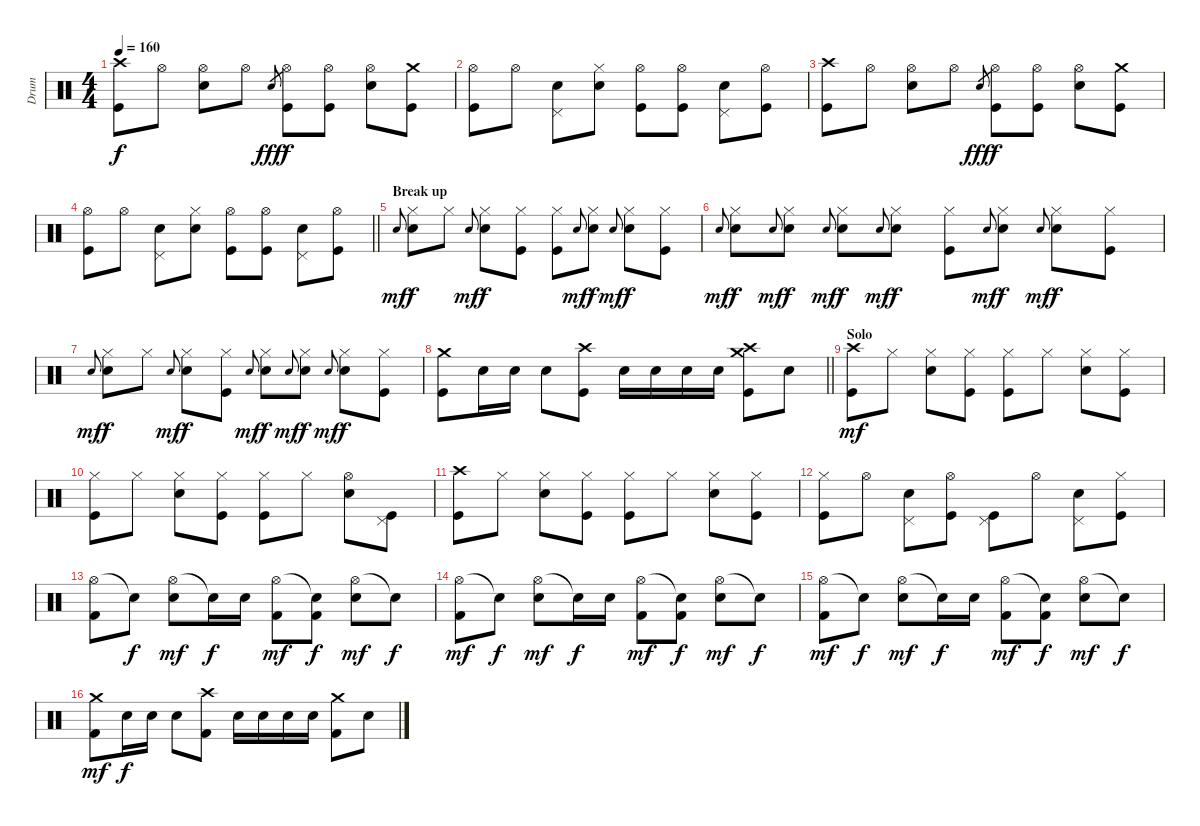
\track ("Drum" "Drum") {instrument percussion}
\staff {score}
\articulation defaults
\ts (4 4)
\tempo 160
\clef neutral
\ks c
("Crash high (hit)" "Kick (hit)").8{dy f} "Hi-Hat (open)".8 ("Hi-Hat (open)" "Electric Snare (hit)").8 "Hi-Hat (open)".8 "Electric Snare (hit)".8{gr dy fff} ("Hi-Hat (open)" "Kick (hit)").8{dy f} ("Hi-Hat (open)" "Kick (hit)").8 ("Hi-Hat (open)" "Electric Snare (hit)").8 ("Crash medium (hit)" "Kick (hit)").8 |
("Hi-Hat (open)" "Kick (hit)").8 "Hi-Hat (open)".8 ("Pedal Hi-Hat (hit)" "Electric Snare (hit)").8 ("Hi-Hat (closed)" "Electric Snare (hit)").8 ("Hi-Hat (open)" "Kick (hit)").8 ("Hi-Hat (open)" "Kick (hit)").8 ("Pedal Hi-Hat (hit)" "Electric Snare (hit)").8 ("Hi-Hat (open)" "Kick (hit)").8 |
("Crash high (hit)" "Kick (hit)").8 "Hi-Hat (open)".8 ("Hi-Hat (open)" "Electric Snare (hit)").8 "Hi-Hat (open)".8 "Electric Snare (hit)".8{gr dy fff} ("Hi-Hat (open)" "Kick (hit)").8{dy f} ("Hi-Hat (open)" "Kick (hit)").8 ("Hi-Hat (open)" "Electric Snare (hit)").8 ("Crash medium (hit)" "Kick (hit)").8 |
\barLineRight lightlight
("Hi-Hat (open)" "Kick (hit)").8 "Hi-Hat (open)".8 ("Pedal Hi-Hat (hit)" "Electric Snare (hit)").8 ("Hi-Hat (closed)" "Electric Snare (hit)").8 ("Hi-Hat (open)" "Kick (hit)").8 ("Hi-Hat (open)" "Kick (hit)").8 ("Pedal Hi-Hat (hit)" "Electric Snare (hit)").8 ("Hi-Hat (open)" "Kick (hit)").8 |
\section ("" "Break up")
"Electric Snare (hit)".8{gr onbeat dy mf} ("Hi-Hat (closed)" "Electric Snare (hit)").8{dy f} "Hi-Hat (closed)".8 "Electric Snare (hit)".8{gr onbeat dy mf} ("Hi-Hat (closed)" "Electric Snare (hit)").8{dy f} ("Hi-Hat (closed)" "Kick (hit)").8 ("Hi-Hat (closed)" "Kick (hit)").8 "Electric Snare (hit)".8{gr onbeat dy mf} ("Hi-Hat (closed)" "Electric Snare (hit)").8{dy f} "Electric Snare (hit)".8{gr onbeat dy mf} ("Hi-Hat (closed)" "Electric Snare (hit)").8{dy f} ("Hi-Hat (closed)" "Kick (hit)").8 |
"Electric Snare (hit)".8{gr onbeat dy mf} ("Hi-Hat (closed)" "Electric Snare (hit)").8{dy f} "Electric Snare (hit)".8{gr onbeat dy mf} ("Hi-Hat (closed)" "Electric Snare (hit)").8{dy f} "Electric Snare (hit)".8{gr onbeat dy mf} ("Hi-Hat (closed)" "Electric Snare (hit)").8{dy f} "Electric Snare (hit)".8{gr onbeat dy mf} ("Hi-Hat (closed)" "Electric Snare (hit)").8{dy f} ("Hi-Hat (closed)" "Kick (hit)").8 "Electric Snare (hit)".8{gr onbeat dy mf} ("Hi-Hat (closed)" "Electric Snare (hit)").8{dy f} "Electric Snare (hit)".8{gr onbeat dy mf} ("Hi-Hat (closed)" "Electric Snare (hit)").8{dy f} ("Hi-Hat (closed)" "Kick (hit)").8 |
"Electric Snare (hit)".8{gr onbeat dy mf} ("Hi-Hat (closed)" "Electric Snare (hit)").8{dy f} "Hi-Hat (closed)".8 "Electric Snare (hit)".8{gr onbeat dy mf} ("Hi-Hat (closed)" "Electric Snare (hit)").8{dy f} ("Hi-Hat (closed)" "Kick (hit)").8 "Electric Snare (hit)".8{gr onbeat dy mf} ("Hi-Hat (closed)" "Electric Snare (hit)").8{dy f} "Electric Snare (hit)".8{gr onbeat dy mf} ("Hi-Hat (closed)" "Electric Snare (hit)").8{dy f} "Electric Snare (hit)".8{gr onbeat dy mf} ("Hi-Hat (closed)" "Electric Snare (hit)").8{dy f} ("Hi-Hat (closed)" "Kick (hit)").8 |
\barLineRight lightlight
("Crash medium (hit)" "Kick (hit)").8 "Electric Snare (hit)".16 "Electric Snare (hit)".16 "Electric Snare (hit)".8 ("Crash high (hit)" "Kick (hit)").8 "Electric Snare (hit)".16 "Electric Snare (hit)".16 "Electric Snare (hit)".16 "Electric Snare (hit)".16 ("Crash high (hit)" "Crash medium (hit)" "Kick (hit)").8 "Electric Snare (hit)".8 |
\section ("" "Solo")
("Crash high (hit)" "Kick (hit)").8{dy mf} "Hi-Hat (closed)".8 ("Hi-Hat (closed)" "Electric Snare (hit)").8 ("Hi-Hat (closed)" "Kick (hit)").8 ("Hi-Hat (closed)" "Kick (hit)").8 "Hi-Hat (closed)".8 ("Hi-Hat (closed)" "Electric Snare (hit)").8 ("Hi-Hat (closed)" "Kick (hit)").8 |
("Hi-Hat (closed)" "Kick (hit)").8 "Hi-Hat (closed)".8 ("Hi-Hat (closed)" "Electric Snare (hit)").8 ("Hi-Hat (closed)" "Kick (hit)").8 ("Hi-Hat (closed)" "Kick (hit)").8 "Hi-Hat (closed)".8 ("Hi-Hat (open)" "Electric Snare (hit)").8 ("Pedal Hi-Hat (hit)" "Kick (hit)").8 |
("Crash high (hit)" "Kick (hit)").8 "Hi-Hat (closed)".8 ("Hi-Hat (closed)" "Electric Snare (hit)").8 ("Hi-Hat (closed)" "Kick (hit)").8 ("Hi-Hat (closed)" "Kick (hit)").8 "Hi-Hat (closed)".8 ("Hi-Hat (closed)" "Electric Snare (hit)").8 ("Hi-Hat (closed)" "Kick (hit)").8 |
("Hi-Hat (closed)" "Kick (hit)").8 "Hi-Hat (open)".8 ("Pedal Hi-Hat (hit)" "Electric Snare (hit)").8 ("Hi-Hat (open)" "Kick (hit)").8 ("Pedal Hi-Hat (hit)" "Kick (hit)").8 "Hi-Hat (open)".8 ("Pedal Hi-Hat (hit)" "Electric Snare (hit)").8 ("Hi-Hat (closed)" "Kick (hit)").8 |
("Hi-Hat (open)" "Kick (hit) 2").8 "Snare (hit)"{t}.8{dy f} ("Hi-Hat (open)" "Electric Snare (hit)").8{dy mf} "Snare (hit)"{t}.16{dy f} "Electric Snare (hit)".16 ("Hi-Hat (open)" "Kick (hit) 2").8{dy mf} ("Snare (hit)"{t} "Kick (hit) 2").8{dy f} ("Hi-Hat (open)" "Electric Snare (hit)").8{dy mf} "Snare (hit)"{t}.8{dy f} |
("Hi-Hat (open)" "Kick (hit) 2").8{dy mf} "Snare (hit)"{t}.8{dy f} ("Hi-Hat (open)" "Electric Snare (hit)").8{dy mf} "Snare (hit)"{t}.16{dy f} "Electric Snare (hit)".16 ("Hi-Hat (open)" "Kick (hit) 2").8{dy mf} ("Snare (hit)"{t} "Kick (hit) 2").8{dy f} ("Hi-Hat (open)" "Electric Snare (hit)").8{dy mf} "Snare (hit)"{t}.8{dy f} |
("Hi-Hat (open)" "Kick (hit) 2").8{dy mf} "Snare (hit)"{t}.8{dy f} ("Hi-Hat (open)" "Electric Snare (hit)").8{dy mf} "Snare (hit)"{t}.16{dy f} "Electric Snare (hit)".16 ("Hi-Hat (open)" "Kick (hit) 2").8{dy mf} ("Snare (hit)"{t} "Kick (hit) 2").8{dy f} ("Hi-Hat (open)" "Electric Snare (hit)").8{dy mf} "Snare (hit)"{t}.8{dy f} |
("Crash medium (hit)" "Kick (hit) 2").8{dy mf} "Electric Snare (hit)".16{dy f} "Electric Snare (hit)".16 "Electric Snare (hit)".8 ("Crash high (hit)" "Kick (hit) 2").8 "Electric Snare (hit)".16 "Electric Snare (hit)".16 "Electric Snare (hit)".16 "Electric Snare (hit)".16 ("Crash medium (hit)" "Kick (hit) 2").8 "Electric Snare (hit)".8
